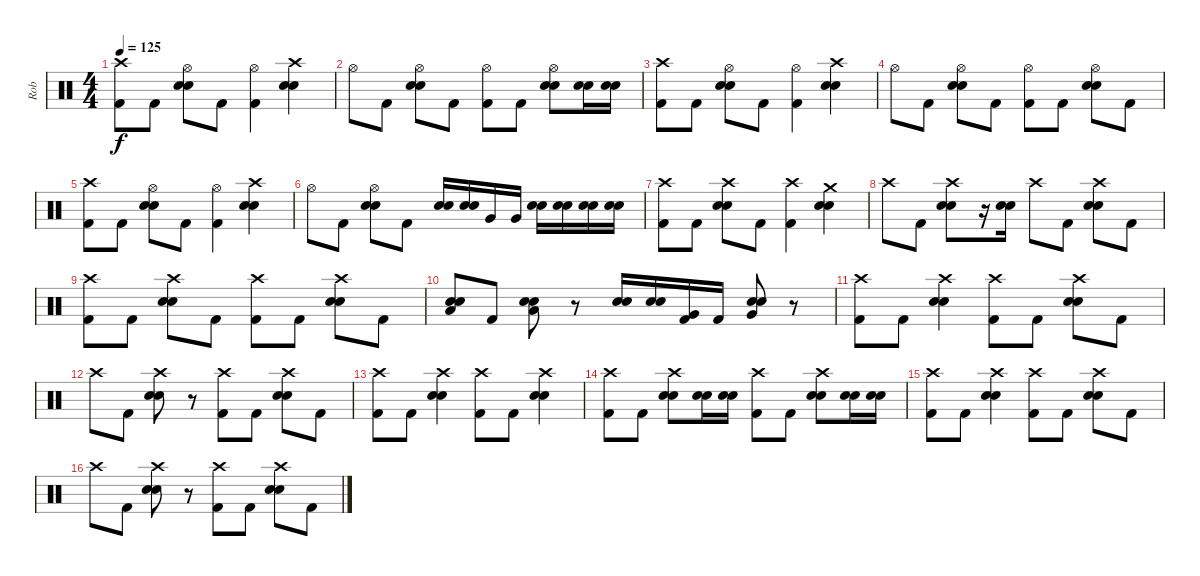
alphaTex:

\track ("Rob" "Rob") {instrument percussion}
\staff {score}
\articulation defaults
\ts (4 4)
\tempo 125
\clef neutral
\ks c
("Crash high (hit)" "Kick (hit) 2").8{dy f} "Kick (hit) 2".8 ("Hi-Hat (open)" "Electric Snare (hit)" "Snare (hit) 2").8 "Kick (hit) 2".8 ("Hi-Hat (open)" "Kick (hit) 2").4 ("Crash high (hit)" "Electric Snare (hit)" "Snare (hit) 2").4 |
"Hi-Hat (open)".8 "Kick (hit) 2".8 ("Hi-Hat (open)" "Electric Snare (hit)" "Snare (hit) 2").8 "Kick (hit) 2".8 ("Hi-Hat (open)" "Kick (hit) 2").8 "Kick (hit) 2".8 ("Hi-Hat (open)" "Electric Snare (hit)" "Snare (hit) 2").8 ("Electric Snare (hit)" "Snare (hit) 2").16 ("Electric Snare (hit)" "Snare (hit) 2").16 |
("Crash high (hit)" "Kick (hit) 2").8 "Kick (hit) 2".8 ("Hi-Hat (open)" "Electric Snare (hit)" "Snare (hit) 2").8 "Kick (hit) 2".8 ("Hi-Hat (open)" "Kick (hit) 2").4 ("Crash high (hit)" "Electric Snare (hit)" "Snare (hit) 2").4 |
"Hi-Hat (open)".8 "Kick (hit) 2".8 ("Hi-Hat (open)" "Electric Snare (hit)" "Snare (hit) 2").8 "Kick (hit) 2".8 ("Hi-Hat (open)" "Kick (hit) 2").8 "Kick (hit) 2".8 ("Hi-Hat (open)" "Electric Snare (hit)" "Snare (hit) 2").8 "Kick (hit) 2".8 |
("Crash high (hit)" "Kick (hit) 2").8 "Kick (hit) 2".8 ("Hi-Hat (open)" "Electric Snare (hit)" "Snare (hit) 2").8 "Kick (hit) 2".8 ("Hi-Hat (open)" "Kick (hit) 2").4 ("Crash high (hit)" "Electric Snare (hit)" "Snare (hit) 2").4 |
"Hi-Hat (open)".8 "Kick (hit) 2".8 ("Hi-Hat (open)" "Electric Snare (hit)" "Snare (hit) 2").8 "Kick (hit) 2".8 ("Electric Snare (hit)" "Snare (hit) 2").16 ("Electric Snare (hit)" "Snare (hit) 2").16 "Very Low Tom (hit)".16 "Very Low Tom (hit)".16 ("Electric Snare (hit)" "Snare (hit) 2").16 ("Electric Snare (hit)" "Snare (hit) 2").16 ("Electric Snare (hit)" "Snare (hit) 2").16 ("Electric Snare (hit)" "Snare (hit) 2").16 |
("Crash high (hit)" "Kick (hit) 2").8 "Kick (hit) 2".8 ("Crash high (hit)" "Electric Snare (hit)" "Snare (hit) 2").8 "Kick (hit) 2".8 ("Crash high (hit)" "Kick (hit) 2").4 ("Crash medium (hit)" "Electric Snare (hit)" "Snare (hit) 2").4 |
"Crash high (hit)".8 "Kick (hit) 2".8 ("Crash high (hit)" "Electric Snare (hit)" "Snare (hit) 2").8 r.16 ("Electric Snare (hit)" "Snare (hit) 2").16 "Crash high (hit)".8 "Kick (hit) 2".8 ("Crash high (hit)" "Electric Snare (hit)" "Snare (hit) 2").8 "Kick (hit) 2".8 |
("Crash high (hit)" "Kick (hit) 2").8 "Kick (hit) 2".8 ("Crash high (hit)" "Electric Snare (hit)" "Snare (hit) 2").8 "Kick (hit) 2".8 ("Crash high (hit)" "Kick (hit) 2").8 "Kick (hit) 2".8 ("Crash high (hit)" "Electric Snare (hit)" "Snare (hit) 2").8 "Kick (hit) 2".8 |
("Low Floor Tom (hit)" "Electric Snare (hit)" "Snare (hit) 2").8 "Kick (hit) 2".8 ("Low Floor Tom (hit)" "Electric Snare (hit)" "Snare (hit) 2").8 r.8 ("Electric Snare (hit)" "Snare (hit) 2").16 ("Electric Snare (hit)" "Snare (hit) 2").16 ("Very Low Tom (hit)" "Kick (hit) 2").16 "Kick (hit) 2".16 ("Very Low Tom (hit)" "Electric Snare (hit)" "Snare (hit) 2").8 r.8 |
("Crash high (hit)" "Kick (hit) 2").8 "Kick (hit) 2".8 ("Crash high (hit)" "Electric Snare (hit)" "Snare (hit) 2").4 ("Crash high (hit)" "Kick (hit) 2").8 "Kick (hit) 2".8 ("Crash high (hit)" "Electric Snare (hit)" "Snare (hit) 2").8 "Kick (hit) 2".8 |
"Crash high (hit)".8 "Kick (hit) 2".8 ("Crash high (hit)" "Electric Snare (hit)" "Snare (hit) 2").8 r.8 ("Crash high (hit)" "Kick (hit) 2").8 "Kick (hit) 2".8 ("Crash high (hit)" "Electric Snare (hit)" "Snare (hit) 2").8 "Kick (hit) 2".8 |
("Crash high (hit)" "Kick (hit) 2").8 "Kick (hit) 2".8 ("Crash high (hit)" "Electric Snare (hit)" "Snare (hit) 2").4 ("Crash high (hit)" "Kick (hit) 2").8 "Kick (hit) 2".8 ("Crash high (hit)" "Electric Snare (hit)" "Snare (hit) 2").4 |
("Crash high (hit)" "Kick (hit) 2").8 "Kick (hit) 2".8 ("Crash high (hit)" "Electric Snare (hit)" "Snare (hit) 2").8 ("Electric Snare (hit)" "Snare (hit) 2").16 ("Electric Snare (hit)" "Snare (hit) 2").16 ("Crash high (hit)" "Kick (hit) 2").8 "Kick (hit) 2".8 ("Crash high (hit)" "Electric Snare (hit)" "Snare (hit) 2").8 ("Electric Snare (hit)" "Snare (hit) 2").16 ("Electric Snare (hit)" "Snare (hit) 2").16 |
("Crash high (hit)" "Kick (hit) 2").8 "Kick (hit) 2".8 ("Crash high (hit)" "Electric Snare (hit)" "Snare (hit) 2").4 ("Crash high (hit)" "Kick (hit) 2").8 "Kick (hit) 2".8 ("Crash high (hit)" "Electric Snare (hit)" "Snare (hit) 2").8 "Kick (hit) 2".8 |
"Crash high (hit)".8 "Kick (hit) 2".8 ("Crash high (hit)" "Electric Snare (hit)" "Snare (hit) 2").8 r.8 ("Crash high (hit)" "Kick (hit) 2").8 "Kick (hit) 2".8 ("Crash high (hit)" "Electric Snare (hit)" "Snare (hit) 2").8 "Kick (hit) 2".8
